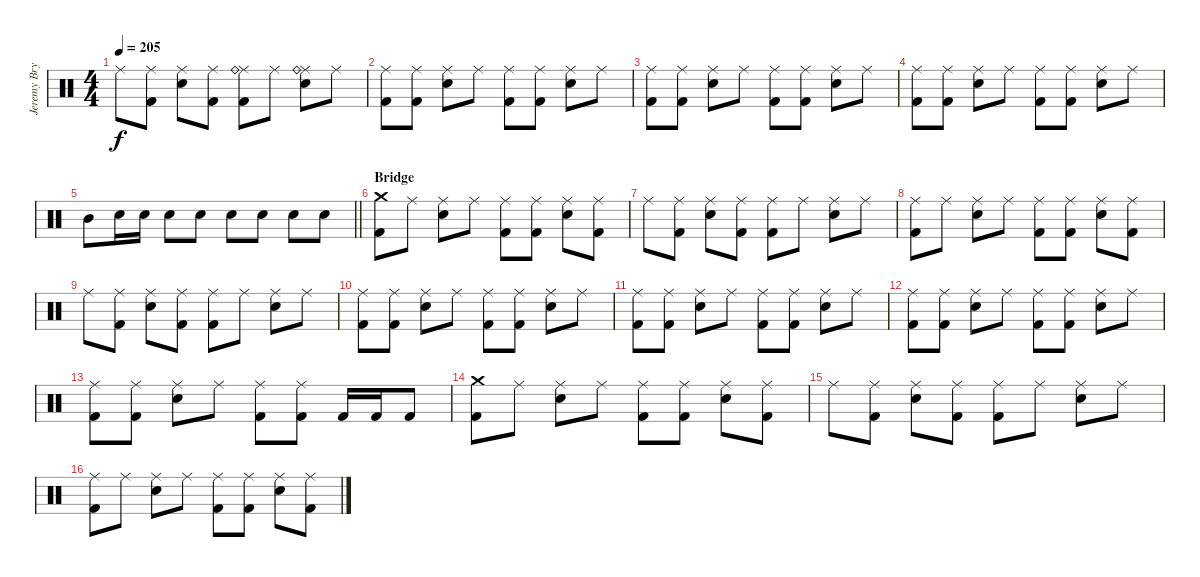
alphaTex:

\track ("Jeremy Bryan - Drums" "Jeremy Bry") {instrument percussion}
\staff {score}
\articulation defaults
\ts (4 4)
\tempo 205
\clef neutral
\ks c "Ride (middle)".8{dy f}
("Ride (middle)" "Kick (hit) 2").8 ("Ride (middle)" "Electric Snare (hit)").8 ("Ride (middle)" "Kick (hit) 2").8 ("Ride (middle)" "Ride (bell)" "Kick (hit) 2").8 "Ride (middle)".8 ("Ride (middle)" "Ride (bell)" "Electric Snare (hit)").8 "Ride (middle)".8 |
("Ride (middle)" "Kick (hit) 2").8 ("Ride (middle)" "Kick (hit) 2").8 ("Ride (middle)" "Electric Snare (hit)").8 "Ride (middle)".8 ("Ride (middle)" "Kick (hit) 2").8 ("Ride (middle)" "Kick (hit) 2").8 ("Ride (middle)" "Electric Snare (hit)").8 "Ride (middle)".8 |
("Ride (middle)" "Kick (hit) 2").8 ("Ride (middle)" "Kick (hit) 2").8 ("Ride (middle)" "Electric Snare (hit)").8 "Ride (middle)".8 ("Ride (middle)" "Kick (hit) 2").8 ("Ride (middle)" "Kick (hit) 2").8 ("Ride (middle)" "Electric Snare (hit)").8 "Ride (middle)".8 |
("Ride (middle)" "Kick (hit) 2").8 ("Ride (middle)" "Kick (hit) 2").8 ("Ride (middle)" "Electric Snare (hit)").8 "Ride (middle)".8 ("Ride (middle)" "Kick (hit) 2").8 ("Ride (middle)" "Kick (hit) 2").8 ("Ride (middle)" "Electric Snare (hit)").8 "Ride (middle)".8 |
\barLineRight lightlight "Mid Tom (hit)".8 "Electric Snare (hit)".16 "Electric Snare (hit)".16 "Electric Snare (hit)".8 "Electric Snare (hit)".8 "Electric Snare (hit)".8 "Electric Snare (hit)".8 "Electric Snare (hit)".8 "Electric Snare (hit)".8
|
\section ("" "Bridge")
("Crash medium (hit)" "Kick (hit) 2").8 "Ride (middle)".8 ("Ride (middle)" "Electric Snare (hit)").8 "Ride (middle)".8 ("Ride (middle)" "Kick (hit) 2").8 ("Ride (middle)" "Kick (hit) 2").8 ("Ride (middle)" "Electric Snare (hit)").8 ("Ride (middle)" "Kick (hit) 2").8 |
"Ride (middle)".8 ("Ride (middle)" "Kick (hit) 2").8 ("Ride (middle)" "Electric Snare (hit)").8 ("Ride (middle)" "Kick (hit) 2").8 ("Ride (middle)" "Kick (hit) 2").8 "Ride (middle)".8 ("Ride (middle)" "Electric Snare (hit)").8 "Ride (middle)".8 |
("Ride (middle)" "Kick (hit) 2").8 "Ride (middle)".8 ("Ride (middle)" "Electric Snare (hit)").8 "Ride (middle)".8 ("Ride (middle)" "Kick (hit) 2").8 ("Ride (middle)" "Kick (hit) 2").8 ("Ride (middle)" "Electric Snare (hit)").8 ("Ride (middle)" "Kick (hit) 2").8 |
"Ride (middle)".8 ("Ride (middle)" "Kick (hit) 2").8 ("Ride (middle)" "Electric Snare (hit)").8 ("Ride (middle)" "Kick (hit) 2").8 ("Ride (middle)" "Kick (hit) 2").8 "Ride (middle)".8 ("Ride (middle)" "Electric Snare (hit)").8 "Ride (middle)".8 |
("Ride (middle)" "Kick (hit) 2").8 ("Ride (middle)" "Kick (hit) 2").8 ("Ride (middle)" "Electric Snare (hit)").8 "Ride (middle)".8 ("Ride (middle)" "Kick (hit) 2").8 ("Ride (middle)" "Kick (hit) 2").8 ("Ride (middle)" "Electric Snare (hit)").8 "Ride (middle)".8 |
("Ride (middle)" "Kick (hit) 2").8 ("Ride (middle)" "Kick (hit) 2").8 ("Ride (middle)" "Electric Snare (hit)").8 "Ride (middle)".8 ("Ride (middle)" "Kick (hit) 2").8 ("Ride (middle)" "Kick (hit) 2").8 ("Ride (middle)" "Electric Snare (hit)").8 "Ride (middle)".8 |
("Ride (middle)" "Kick (hit) 2").8 ("Ride (middle)" "Kick (hit) 2").8 ("Ride (middle)" "Electric Snare (hit)").8 "Ride (middle)".8 ("Ride (middle)" "Kick (hit) 2").8 ("Ride (middle)" "Kick (hit) 2").8 ("Ride (middle)" "Electric Snare (hit)").8 "Ride (middle)".8 |
("Ride (middle)" "Kick (hit) 2").8 ("Ride (middle)" "Kick (hit) 2").8 ("Ride (middle)" "Electric Snare (hit)").8 "Ride (middle)".8 ("Ride (middle)" "Kick (hit) 2").8 ("Ride (middle)" "Kick (hit) 2").8 "Kick (hit) 2".16 "Kick (hit) 2".16 "Kick (hit) 2".8 |
("Crash medium (hit)" "Kick (hit) 2").8 "Ride (middle)".8 ("Ride (middle)" "Electric Snare (hit)").8 "Ride (middle)".8 ("Ride (middle)" "Kick (hit) 2").8 ("Ride (middle)" "Kick (hit) 2").8 ("Ride (middle)" "Electric Snare (hit)").8 ("Ride (middle)" "Kick (hit) 2").8 |
"Ride (middle)".8 ("Ride (middle)" "Kick (hit) 2").8 ("Ride (middle)" "Electric Snare (hit)").8 ("Ride (middle)" "Kick (hit) 2").8 ("Ride (middle)" "Kick (hit) 2").8 "Ride (middle)".8 ("Ride (middle)" "Electric Snare (hit)").8 "Ride (middle)".8 |
("Ride (middle)" "Kick (hit) 2").8 "Ride (middle)".8 ("Ride (middle)" "Electric Snare (hit)").8 "Ride (middle)".8 ("Ride (middle)" "Kick (hit) 2").8 ("Ride (middle)" "Kick (hit) 2").8 ("Ride (middle)" "Electric Snare (hit)").8 ("Ride (middle)" "Kick (hit) 2").8
